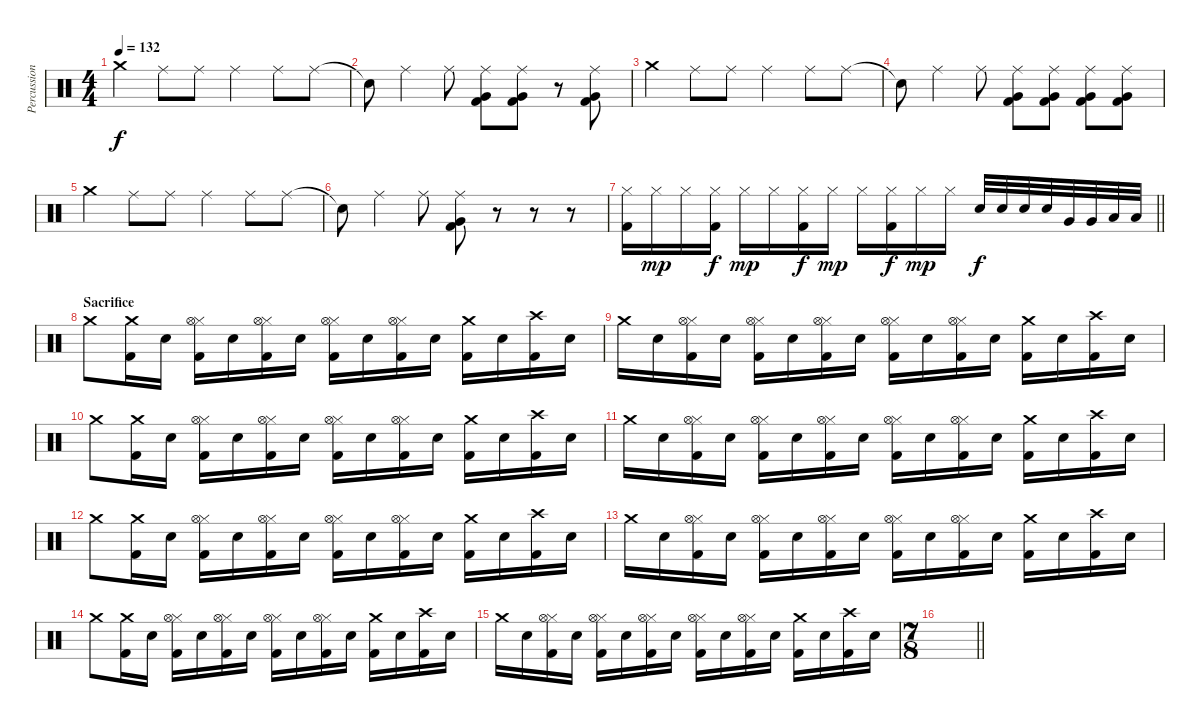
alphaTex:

\track ("Percussion" "Percussion") {instrument percussion}
\staff {score}
\articulation defaults
\ts (4 4)
\tempo 132
\clef neutral
\ks c "Crash medium (hit)".4{dy f} "Ride (middle)".8 "Ride (middle)".8 "Ride (middle)".4 "Ride (middle)".8 "Ride (middle)".8
|
"Snare (hit)"{t}.8 "Ride (middle)".4 "Ride (middle)".8 ("Ride (middle)" "Very Low Tom (hit)" "Kick (hit) 2").8 ("Ride (middle)" "Very Low Tom (hit)" "Kick (hit) 2").8 r.8 ("Ride (middle)" "Very Low Tom (hit)" "Kick (hit) 2").8 |
"Crash medium (hit)".4 "Ride (middle)".8 "Ride (middle)".8 "Ride (middle)".4 "Ride (middle)".8 "Ride (middle)".8 |
"Snare (hit)"{t}.8 "Ride (middle)".4 "Ride (middle)".8 ("Ride (middle)" "Very Low Tom (hit)" "Kick (hit) 2").8 ("Ride (middle)" "Very Low Tom (hit)" "Kick (hit) 2").8 ("Ride (middle)" "Very Low Tom (hit)" "Kick (hit) 2").8 ("Ride (middle)" "Very Low Tom (hit)" "Kick (hit) 2").8 |
"Crash medium (hit)".4 "Ride (middle)".8 "Ride (middle)".8 "Ride (middle)".4 "Ride (middle)".8 "Ride (middle)".8 |
"Snare (hit)"{t}.8 "Ride (middle)".4 "Ride (middle)".8 ("Ride (middle)" "Very Low Tom (hit)" "Kick (hit) 2").8 r.8 r.8 r.8 |
\barLineRight lightlight
("Hi-Hat (closed)" "Kick (hit) 2").16 "Hi-Hat (closed)".16{dy mp} "Hi-Hat (closed)".16 ("Hi-Hat (closed)" "Kick (hit) 2").16{dy f} "Hi-Hat (closed)".16{dy mp} "Hi-Hat (closed)".16 ("Hi-Hat (closed)" "Kick (hit) 2").16{dy f} "Hi-Hat (closed)".16{dy mp} "Hi-Hat (closed)".16 ("Hi-Hat (closed)" "Kick (hit) 2").16{dy f} "Hi-Hat (closed)".16{dy mp} "Hi-Hat (closed)".16 "Snare (hit) 2".32{dy f} "Snare (hit) 2".32 "Snare (hit) 2".32 "Snare (hit) 2".32 "Very Low Tom (hit)".32 "Very Low Tom (hit)".32 "Low Floor Tom (hit)".32 "Low Floor Tom (hit)".32 |
\section ("" "Sacrifice")
"Crash medium (hit)".8 ("Crash medium (hit)" "Kick (hit) 2").16 "Snare (hit) 2".16 ("Hi-Hat (closed)" "Kick (hit) 2" "Hi-Hat (open)").16 "Snare (hit) 2".16 ("Hi-Hat (closed)" "Kick (hit) 2" "Hi-Hat (open)").16 "Snare (hit) 2".16 ("Hi-Hat (closed)" "Kick (hit) 2" "Hi-Hat (open)").16 "Snare (hit) 2".16 ("Hi-Hat (closed)" "Kick (hit) 2" "Hi-Hat (open)").16 "Snare (hit) 2".16 ("Crash medium (hit)" "Kick (hit) 2").16 "Snare (hit) 2".16 ("Crash high (hit)" "Kick (hit) 2").16 "Snare (hit) 2".16 |
"Crash medium (hit)".16 "Snare (hit) 2".16 ("Hi-Hat (closed)" "Kick (hit) 2" "Hi-Hat (open)").16 "Snare (hit) 2".16 ("Hi-Hat (closed)" "Kick (hit) 2" "Hi-Hat (open)").16 "Snare (hit) 2".16 ("Hi-Hat (closed)" "Kick (hit) 2" "Hi-Hat (open)").16 "Snare (hit) 2".16 ("Hi-Hat (closed)" "Kick (hit) 2" "Hi-Hat (open)").16 "Snare (hit) 2".16 ("Hi-Hat (closed)" "Kick (hit) 2" "Hi-Hat (open)").16 "Snare (hit) 2".16 ("Crash medium (hit)" "Kick (hit) 2").16 "Snare (hit) 2".16 ("Crash high (hit)" "Kick (hit) 2").16 "Snare (hit) 2".16 |
"Crash medium (hit)".8 ("Crash medium (hit)" "Kick (hit) 2").16 "Snare (hit) 2".16 ("Hi-Hat (closed)" "Kick (hit) 2" "Hi-Hat (open)").16 "Snare (hit) 2".16 ("Hi-Hat (closed)" "Kick (hit) 2" "Hi-Hat (open)").16 "Snare (hit) 2".16 ("Hi-Hat (closed)" "Kick (hit) 2" "Hi-Hat (open)").16 "Snare (hit) 2".16 ("Hi-Hat (closed)" "Kick (hit) 2" "Hi-Hat (open)").16 "Snare (hit) 2".16 ("Crash medium (hit)" "Kick (hit) 2").16 "Snare (hit) 2".16 ("Crash high (hit)" "Kick (hit) 2").16 "Snare (hit) 2".16 |
"Crash medium (hit)".16 "Snare (hit) 2".16 ("Hi-Hat (closed)" "Kick (hit) 2" "Hi-Hat (open)").16 "Snare (hit) 2".16 ("Hi-Hat (closed)" "Kick (hit) 2" "Hi-Hat (open)").16 "Snare (hit) 2".16 ("Hi-Hat (closed)" "Kick (hit) 2" "Hi-Hat (open)").16 "Snare (hit) 2".16 ("Hi-Hat (closed)" "Kick (hit) 2" "Hi-Hat (open)").16 "Snare (hit) 2".16 ("Hi-Hat (closed)" "Kick (hit) 2" "Hi-Hat (open)").16 "Snare (hit) 2".16 ("Crash medium (hit)" "Kick (hit) 2").16 "Snare (hit) 2".16 ("Crash high (hit)" "Kick (hit) 2").16 "Snare (hit) 2".16 |
"Crash medium (hit)".8 ("Crash medium (hit)" "Kick (hit) 2").16 "Snare (hit) 2".16 ("Hi-Hat (closed)" "Kick (hit) 2" "Hi-Hat (open)").16 "Snare (hit) 2".16 ("Hi-Hat (closed)" "Kick (hit) 2" "Hi-Hat (open)").16 "Snare (hit) 2".16 ("Hi-Hat (closed)" "Kick (hit) 2" "Hi-Hat (open)").16 "Snare (hit) 2".16 ("Hi-Hat (closed)" "Kick (hit) 2" "Hi-Hat (open)").16 "Snare (hit) 2".16 ("Crash medium (hit)" "Kick (hit) 2").16 "Snare (hit) 2".16 ("Crash high (hit)" "Kick (hit) 2").16 "Snare (hit) 2".16 |
"Crash medium (hit)".16 "Snare (hit) 2".16 ("Hi-Hat (closed)" "Kick (hit) 2" "Hi-Hat (open)").16 "Snare (hit) 2".16 ("Hi-Hat (closed)" "Kick (hit) 2" "Hi-Hat (open)").16 "Snare (hit) 2".16 ("Hi-Hat (closed)" "Kick (hit) 2" "Hi-Hat (open)").16 "Snare (hit) 2".16 ("Hi-Hat (closed)" "Kick (hit) 2" "Hi-Hat (open)").16 "Snare (hit) 2".16 ("Hi-Hat (closed)" "Kick (hit) 2" "Hi-Hat (open)").16 "Snare (hit) 2".16 ("Crash medium (hit)" "Kick (hit) 2").16 "Snare (hit) 2".16 ("Crash high (hit)" "Kick (hit) 2").16 "Snare (hit) 2".16 |
"Crash medium (hit)".8 ("Crash medium (hit)" "Kick (hit) 2").16 "Snare (hit) 2".16 ("Hi-Hat (closed)" "Kick (hit) 2" "Hi-Hat (open)").16 "Snare (hit) 2".16 ("Hi-Hat (closed)" "Kick (hit) 2" "Hi-Hat (open)").16 "Snare (hit) 2".16 ("Hi-Hat (closed)" "Kick (hit) 2" "Hi-Hat (open)").16 "Snare (hit) 2".16 ("Hi-Hat (closed)" "Kick (hit) 2" "Hi-Hat (open)").16 "Snare (hit) 2".16 ("Crash medium (hit)" "Kick (hit) 2").16 "Snare (hit) 2".16 ("Crash high (hit)" "Kick (hit) 2").16 "Snare (hit) 2".16 |
"Crash medium (hit)".16 "Snare (hit) 2".16 ("Hi-Hat (closed)" "Kick (hit) 2" "Hi-Hat (open)").16 "Snare (hit) 2".16 ("Hi-Hat (closed)" "Kick (hit) 2" "Hi-Hat (open)").16 "Snare (hit) 2".16 ("Hi-Hat (closed)" "Kick (hit) 2" "Hi-Hat (open)").16 "Snare (hit) 2".16 ("Hi-Hat (closed)" "Kick (hit) 2" "Hi-Hat (open)").16 "Snare (hit) 2".16 ("Hi-Hat (closed)" "Kick (hit) 2" "Hi-Hat (open)").16 "Snare (hit) 2".16 ("Crash medium (hit)" "Kick (hit) 2").16 "Snare (hit) 2".16 ("Crash high (hit)" "Kick (hit) 2").16 "Snare (hit) 2".16 |
\ts (7 8)
\barLineRight lightlight
